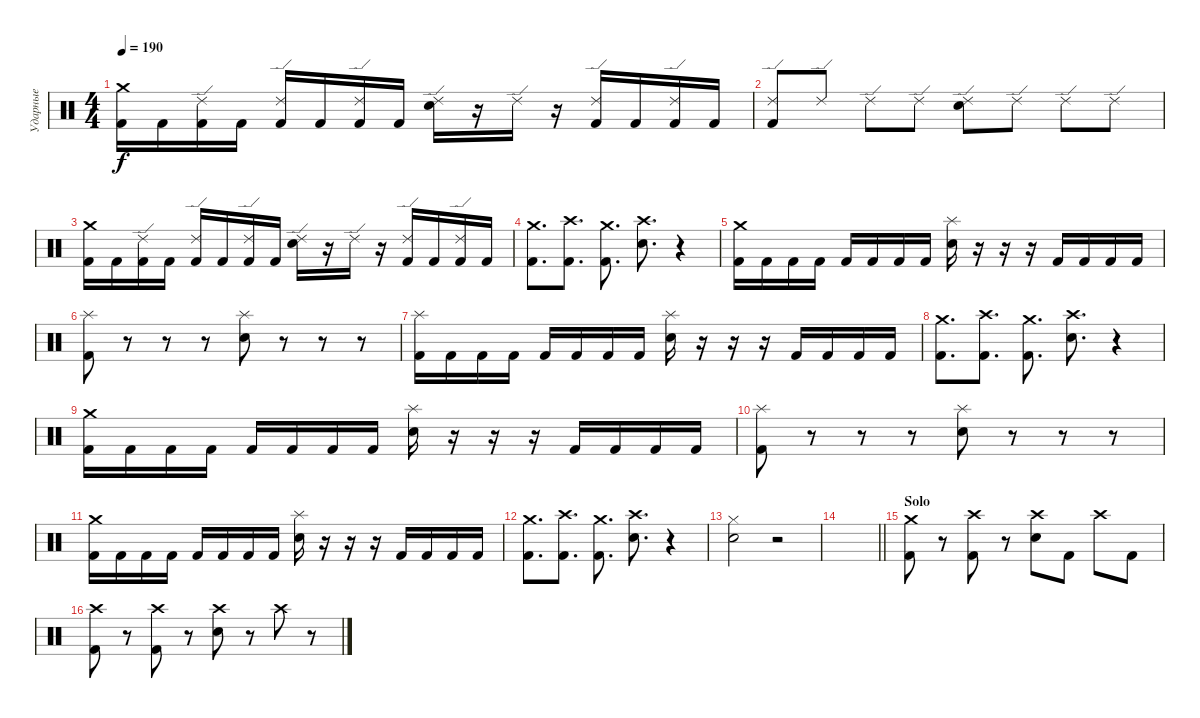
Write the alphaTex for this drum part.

\track ("Ударные" "Ударные") {instrument percussion}
\staff {score}
\articulation defaults
\ts (4 4)
\tempo 190
\clef neutral
\ks c
("Crash medium (hit)" "Kick (hit) 2").16{dy f} "Kick (hit) 2".16 ("Ride (edge) 2" "Kick (hit) 2").16 "Kick (hit) 2".16 ("Ride (edge) 2" "Kick (hit) 2").16 "Kick (hit) 2".16 ("Ride (edge) 2" "Kick (hit) 2").16 "Kick (hit) 2".16 ("Ride (edge) 2" "Electric Snare (hit)").16 r.16 "Ride (edge) 2".16 r.16 ("Ride (edge) 2" "Kick (hit) 2").16 "Kick (hit) 2".16 ("Ride (edge) 2" "Kick (hit) 2").16 "Kick (hit) 2".16 |
("Ride (edge) 2" "Kick (hit) 2").8 "Ride (edge) 2".8 "Ride (edge) 2".8 "Ride (edge) 2".8 ("Ride (edge) 2" "Electric Snare (hit)").8 "Ride (edge) 2".8 "Ride (edge) 2".8 "Ride (edge) 2".8 |
("Crash medium (hit)" "Kick (hit) 2").16 "Kick (hit) 2".16 ("Ride (edge) 2" "Kick (hit) 2").16 "Kick (hit) 2".16 ("Ride (edge) 2" "Kick (hit) 2").16 "Kick (hit) 2".16 ("Ride (edge) 2" "Kick (hit) 2").16 "Kick (hit) 2".16 ("Ride (edge) 2" "Electric Snare (hit)").16 r.16 "Ride (edge) 2".16 r.16 ("Ride (edge) 2" "Kick (hit) 2").16 "Kick (hit) 2".16 ("Ride (edge) 2" "Kick (hit) 2").16 "Kick (hit) 2".16 |
("Crash medium (hit)" "Kick (hit) 2").8{d} ("Crash high (hit)" "Kick (hit) 2").8{d} ("Crash medium (hit)" "Kick (hit) 2").8{d} ("Crash high (hit)" "Electric Snare (hit)").8{d} r.4 |
("Crash medium (hit)" "Kick (hit) 2").16 "Kick (hit) 2".16 "Kick (hit) 2".16 "Kick (hit) 2".16 "Kick (hit) 2".16 "Kick (hit) 2".16 "Kick (hit) 2".16 "Kick (hit) 2".16 ("Splash (hit)" "Electric Snare (hit)").16 r.16 r.16 r.16 "Kick (hit) 2".16 "Kick (hit) 2".16 "Kick (hit) 2".16 "Kick (hit) 2".16 |
("Splash (hit)" "Kick (hit) 2").8 r.8 r.8 r.8 ("Splash (hit)" "Electric Snare (hit)").8 r.8 r.8 r.8 |
("Splash (hit)" "Kick (hit) 2").16 "Kick (hit) 2".16 "Kick (hit) 2".16 "Kick (hit) 2".16 "Kick (hit) 2".16 "Kick (hit) 2".16 "Kick (hit) 2".16 "Kick (hit) 2".16 ("Splash (hit)" "Electric Snare (hit)").16 r.16 r.16 r.16 "Kick (hit) 2".16 "Kick (hit) 2".16 "Kick (hit) 2".16 "Kick (hit) 2".16 |
("Crash medium (hit)" "Kick (hit) 2").8{d} ("Crash high (hit)" "Kick (hit) 2").8{d} ("Crash medium (hit)" "Kick (hit) 2").8{d} ("Crash high (hit)" "Electric Snare (hit)").8{d} r.4 |
("Crash medium (hit)" "Kick (hit) 2").16 "Kick (hit) 2".16 "Kick (hit) 2".16 "Kick (hit) 2".16 "Kick (hit) 2".16 "Kick (hit) 2".16 "Kick (hit) 2".16 "Kick (hit) 2".16 ("Splash (hit)" "Electric Snare (hit)").16 r.16 r.16 r.16 "Kick (hit) 2".16 "Kick (hit) 2".16 "Kick (hit) 2".16 "Kick (hit) 2".16 |
("Splash (hit)" "Kick (hit) 2").8 r.8 r.8 r.8 ("Splash (hit)" "Electric Snare (hit)").8 r.8 r.8 r.8 |
("Crash medium (hit)" "Kick (hit) 2").16 "Kick (hit) 2".16 "Kick (hit) 2".16 "Kick (hit) 2".16 "Kick (hit) 2".16 "Kick (hit) 2".16 "Kick (hit) 2".16 "Kick (hit) 2".16 ("Splash (hit)" "Electric Snare (hit)").16 r.16 r.16 r.16 "Kick (hit) 2".16 "Kick (hit) 2".16 "Kick (hit) 2".16 "Kick (hit) 2".16 |
("Crash medium (hit)" "Kick (hit) 2").8{d} ("Crash high (hit)" "Kick (hit) 2").8{d} ("Crash medium (hit)" "Kick (hit) 2").8{d} ("Crash high (hit)" "Electric Snare (hit)").8{d} r.4 |
("Hi-Hat (closed)" "Electric Snare (hit)").2 r.2 |
\barLineRight lightlight
|
\section ("" "Solo")
("Crash medium (hit)" "Kick (hit) 2").8 r.8 ("Crash high (hit)" "Kick (hit) 2").8 r.8 ("Crash high (hit)" "Electric Snare (hit)").8 "Kick (hit) 2".8 "Crash high (hit)".8 "Kick (hit) 2".8 |
("Crash high (hit)" "Kick (hit) 2").8 r.8 ("Crash high (hit)" "Kick (hit) 2").8 r.8 ("Crash high (hit)" "Electric Snare (hit)").8 r.8 "Crash high (hit)".8 r.8
